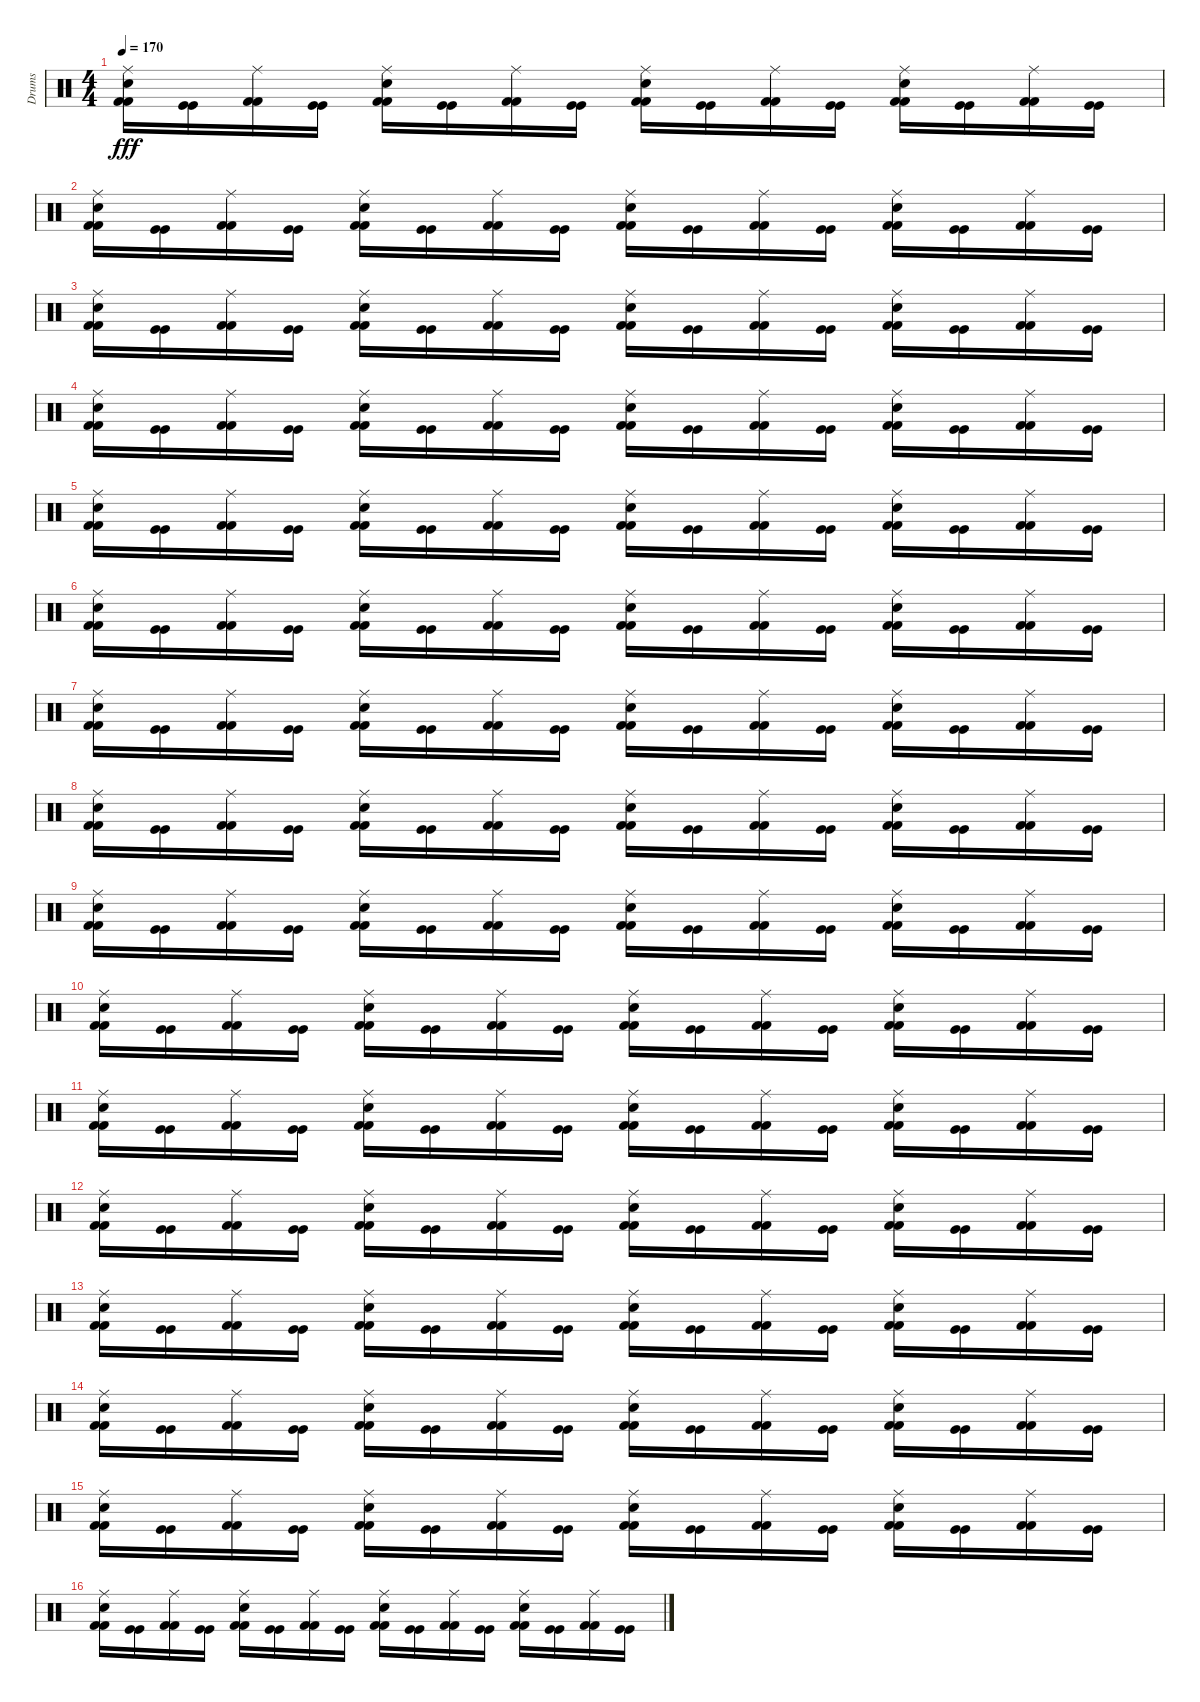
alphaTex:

\track ("Drums" "Drums") {instrument percussion}
\staff {score}
\articulation defaults
\ts (4 4)
\tempo 170
\clef neutral
\ks c
("Kick (hit) 2" "Kick (hit) 2" "Electric Snare (hit)" "Ride (middle)").16{dy fff} ("Kick (hit)" "Kick (hit)").16 ("Kick (hit) 2" "Kick (hit) 2" "Ride (middle)").16 ("Kick (hit)" "Kick (hit)").16 ("Kick (hit) 2" "Kick (hit) 2" "Electric Snare (hit)" "Ride (middle)").16 ("Kick (hit)" "Kick (hit)").16 ("Kick (hit) 2" "Kick (hit) 2" "Ride (middle)").16 ("Kick (hit)" "Kick (hit)").16 ("Kick (hit) 2" "Kick (hit) 2" "Electric Snare (hit)" "Ride (middle)").16 ("Kick (hit)" "Kick (hit)").16 ("Kick (hit) 2" "Kick (hit) 2" "Ride (middle)").16 ("Kick (hit)" "Kick (hit)").16 ("Kick (hit) 2" "Kick (hit) 2" "Electric Snare (hit)" "Ride (middle)").16 ("Kick (hit)" "Kick (hit)").16 ("Kick (hit) 2" "Kick (hit) 2" "Ride (middle)").16 ("Kick (hit)" "Kick (hit)").16 |
("Kick (hit) 2" "Kick (hit) 2" "Electric Snare (hit)" "Ride (middle)").16 ("Kick (hit)" "Kick (hit)").16 ("Kick (hit) 2" "Kick (hit) 2" "Ride (middle)").16 ("Kick (hit)" "Kick (hit)").16 ("Kick (hit) 2" "Kick (hit) 2" "Electric Snare (hit)" "Ride (middle)").16 ("Kick (hit)" "Kick (hit)").16 ("Kick (hit) 2" "Kick (hit) 2" "Ride (middle)").16 ("Kick (hit)" "Kick (hit)").16 ("Kick (hit) 2" "Kick (hit) 2" "Electric Snare (hit)" "Ride (middle)").16 ("Kick (hit)" "Kick (hit)").16 ("Kick (hit) 2" "Kick (hit) 2" "Ride (middle)").16 ("Kick (hit)" "Kick (hit)").16 ("Kick (hit) 2" "Kick (hit) 2" "Electric Snare (hit)" "Ride (middle)").16 ("Kick (hit)" "Kick (hit)").16 ("Kick (hit) 2" "Kick (hit) 2" "Ride (middle)").16 ("Kick (hit)" "Kick (hit)").16 |
("Kick (hit) 2" "Kick (hit) 2" "Electric Snare (hit)" "Ride (middle)").16 ("Kick (hit)" "Kick (hit)").16 ("Kick (hit) 2" "Kick (hit) 2" "Ride (middle)").16 ("Kick (hit)" "Kick (hit)").16 ("Kick (hit) 2" "Kick (hit) 2" "Electric Snare (hit)" "Ride (middle)").16 ("Kick (hit)" "Kick (hit)").16 ("Kick (hit) 2" "Kick (hit) 2" "Ride (middle)").16 ("Kick (hit)" "Kick (hit)").16 ("Kick (hit) 2" "Kick (hit) 2" "Electric Snare (hit)" "Ride (middle)").16 ("Kick (hit)" "Kick (hit)").16 ("Kick (hit) 2" "Kick (hit) 2" "Ride (middle)").16 ("Kick (hit)" "Kick (hit)").16 ("Kick (hit) 2" "Kick (hit) 2" "Electric Snare (hit)" "Ride (middle)").16 ("Kick (hit)" "Kick (hit)").16 ("Kick (hit) 2" "Kick (hit) 2" "Ride (middle)").16 ("Kick (hit)" "Kick (hit)").16 |
("Kick (hit) 2" "Kick (hit) 2" "Electric Snare (hit)" "Ride (middle)").16 ("Kick (hit)" "Kick (hit)").16 ("Kick (hit) 2" "Kick (hit) 2" "Ride (middle)").16 ("Kick (hit)" "Kick (hit)").16 ("Kick (hit) 2" "Kick (hit) 2" "Electric Snare (hit)" "Ride (middle)").16 ("Kick (hit)" "Kick (hit)").16 ("Kick (hit) 2" "Kick (hit) 2" "Ride (middle)").16 ("Kick (hit)" "Kick (hit)").16 ("Kick (hit) 2" "Kick (hit) 2" "Electric Snare (hit)" "Ride (middle)").16 ("Kick (hit)" "Kick (hit)").16 ("Kick (hit) 2" "Kick (hit) 2" "Ride (middle)").16 ("Kick (hit)" "Kick (hit)").16 ("Kick (hit) 2" "Kick (hit) 2" "Electric Snare (hit)" "Ride (middle)").16 ("Kick (hit)" "Kick (hit)").16 ("Kick (hit) 2" "Kick (hit) 2" "Ride (middle)").16 ("Kick (hit)" "Kick (hit)").16 |
("Kick (hit) 2" "Kick (hit) 2" "Electric Snare (hit)" "Ride (middle)").16 ("Kick (hit)" "Kick (hit)").16 ("Kick (hit) 2" "Kick (hit) 2" "Ride (middle)").16 ("Kick (hit)" "Kick (hit)").16 ("Kick (hit) 2" "Kick (hit) 2" "Electric Snare (hit)" "Ride (middle)").16 ("Kick (hit)" "Kick (hit)").16 ("Kick (hit) 2" "Kick (hit) 2" "Ride (middle)").16 ("Kick (hit)" "Kick (hit)").16 ("Kick (hit) 2" "Kick (hit) 2" "Electric Snare (hit)" "Ride (middle)").16 ("Kick (hit)" "Kick (hit)").16 ("Kick (hit) 2" "Kick (hit) 2" "Ride (middle)").16 ("Kick (hit)" "Kick (hit)").16 ("Kick (hit) 2" "Kick (hit) 2" "Electric Snare (hit)" "Ride (middle)").16 ("Kick (hit)" "Kick (hit)").16 ("Kick (hit) 2" "Kick (hit) 2" "Ride (middle)").16 ("Kick (hit)" "Kick (hit)").16 |
("Kick (hit) 2" "Kick (hit) 2" "Electric Snare (hit)" "Ride (middle)").16 ("Kick (hit)" "Kick (hit)").16 ("Kick (hit) 2" "Kick (hit) 2" "Ride (middle)").16 ("Kick (hit)" "Kick (hit)").16 ("Kick (hit) 2" "Kick (hit) 2" "Electric Snare (hit)" "Ride (middle)").16 ("Kick (hit)" "Kick (hit)").16 ("Kick (hit) 2" "Kick (hit) 2" "Ride (middle)").16 ("Kick (hit)" "Kick (hit)").16 ("Kick (hit) 2" "Kick (hit) 2" "Electric Snare (hit)" "Ride (middle)").16 ("Kick (hit)" "Kick (hit)").16 ("Kick (hit) 2" "Kick (hit) 2" "Ride (middle)").16 ("Kick (hit)" "Kick (hit)").16 ("Kick (hit) 2" "Kick (hit) 2" "Electric Snare (hit)" "Ride (middle)").16 ("Kick (hit)" "Kick (hit)").16 ("Kick (hit) 2" "Kick (hit) 2" "Ride (middle)").16 ("Kick (hit)" "Kick (hit)").16 |
("Kick (hit) 2" "Kick (hit) 2" "Electric Snare (hit)" "Ride (middle)").16 ("Kick (hit)" "Kick (hit)").16 ("Kick (hit) 2" "Kick (hit) 2" "Ride (middle)").16 ("Kick (hit)" "Kick (hit)").16 ("Kick (hit) 2" "Kick (hit) 2" "Electric Snare (hit)" "Ride (middle)").16 ("Kick (hit)" "Kick (hit)").16 ("Kick (hit) 2" "Kick (hit) 2" "Ride (middle)").16 ("Kick (hit)" "Kick (hit)").16 ("Kick (hit) 2" "Kick (hit) 2" "Electric Snare (hit)" "Ride (middle)").16 ("Kick (hit)" "Kick (hit)").16 ("Kick (hit) 2" "Kick (hit) 2" "Ride (middle)").16 ("Kick (hit)" "Kick (hit)").16 ("Kick (hit) 2" "Kick (hit) 2" "Electric Snare (hit)" "Ride (middle)").16 ("Kick (hit)" "Kick (hit)").16 ("Kick (hit) 2" "Kick (hit) 2" "Ride (middle)").16 ("Kick (hit)" "Kick (hit)").16 |
("Kick (hit) 2" "Kick (hit) 2" "Electric Snare (hit)" "Ride (middle)").16 ("Kick (hit)" "Kick (hit)").16 ("Kick (hit) 2" "Kick (hit) 2" "Ride (middle)").16 ("Kick (hit)" "Kick (hit)").16 ("Kick (hit) 2" "Kick (hit) 2" "Electric Snare (hit)" "Ride (middle)").16 ("Kick (hit)" "Kick (hit)").16 ("Kick (hit) 2" "Kick (hit) 2" "Ride (middle)").16 ("Kick (hit)" "Kick (hit)").16 ("Kick (hit) 2" "Kick (hit) 2" "Electric Snare (hit)" "Ride (middle)").16 ("Kick (hit)" "Kick (hit)").16 ("Kick (hit) 2" "Kick (hit) 2" "Ride (middle)").16 ("Kick (hit)" "Kick (hit)").16 ("Kick (hit) 2" "Kick (hit) 2" "Electric Snare (hit)" "Ride (middle)").16 ("Kick (hit)" "Kick (hit)").16 ("Kick (hit) 2" "Kick (hit) 2" "Ride (middle)").16 ("Kick (hit)" "Kick (hit)").16 |
("Kick (hit) 2" "Kick (hit) 2" "Electric Snare (hit)" "Ride (middle)").16 ("Kick (hit)" "Kick (hit)").16 ("Kick (hit) 2" "Kick (hit) 2" "Ride (middle)").16 ("Kick (hit)" "Kick (hit)").16 ("Kick (hit) 2" "Kick (hit) 2" "Electric Snare (hit)" "Ride (middle)").16 ("Kick (hit)" "Kick (hit)").16 ("Kick (hit) 2" "Kick (hit) 2" "Ride (middle)").16 ("Kick (hit)" "Kick (hit)").16 ("Kick (hit) 2" "Kick (hit) 2" "Electric Snare (hit)" "Ride (middle)").16 ("Kick (hit)" "Kick (hit)").16 ("Kick (hit) 2" "Kick (hit) 2" "Ride (middle)").16 ("Kick (hit)" "Kick (hit)").16 ("Kick (hit) 2" "Kick (hit) 2" "Electric Snare (hit)" "Ride (middle)").16 ("Kick (hit)" "Kick (hit)").16 ("Kick (hit) 2" "Kick (hit) 2" "Ride (middle)").16 ("Kick (hit)" "Kick (hit)").16 |
("Kick (hit) 2" "Kick (hit) 2" "Electric Snare (hit)" "Ride (middle)").16 ("Kick (hit)" "Kick (hit)").16 ("Kick (hit) 2" "Kick (hit) 2" "Ride (middle)").16 ("Kick (hit)" "Kick (hit)").16 ("Kick (hit) 2" "Kick (hit) 2" "Electric Snare (hit)" "Ride (middle)").16 ("Kick (hit)" "Kick (hit)").16 ("Kick (hit) 2" "Kick (hit) 2" "Ride (middle)").16 ("Kick (hit)" "Kick (hit)").16 ("Kick (hit) 2" "Kick (hit) 2" "Electric Snare (hit)" "Ride (middle)").16 ("Kick (hit)" "Kick (hit)").16 ("Kick (hit) 2" "Kick (hit) 2" "Ride (middle)").16 ("Kick (hit)" "Kick (hit)").16 ("Kick (hit) 2" "Kick (hit) 2" "Electric Snare (hit)" "Ride (middle)").16 ("Kick (hit)" "Kick (hit)").16 ("Kick (hit) 2" "Kick (hit) 2" "Ride (middle)").16 ("Kick (hit)" "Kick (hit)").16 |
("Kick (hit) 2" "Kick (hit) 2" "Electric Snare (hit)" "Ride (middle)").16 ("Kick (hit)" "Kick (hit)").16 ("Kick (hit) 2" "Kick (hit) 2" "Ride (middle)").16 ("Kick (hit)" "Kick (hit)").16 ("Kick (hit) 2" "Kick (hit) 2" "Electric Snare (hit)" "Ride (middle)").16 ("Kick (hit)" "Kick (hit)").16 ("Kick (hit) 2" "Kick (hit) 2" "Ride (middle)").16 ("Kick (hit)" "Kick (hit)").16 ("Kick (hit) 2" "Kick (hit) 2" "Electric Snare (hit)" "Ride (middle)").16 ("Kick (hit)" "Kick (hit)").16 ("Kick (hit) 2" "Kick (hit) 2" "Ride (middle)").16 ("Kick (hit)" "Kick (hit)").16 ("Kick (hit) 2" "Kick (hit) 2" "Electric Snare (hit)" "Ride (middle)").16 ("Kick (hit)" "Kick (hit)").16 ("Kick (hit) 2" "Kick (hit) 2" "Ride (middle)").16 ("Kick (hit)" "Kick (hit)").16 |
("Kick (hit) 2" "Kick (hit) 2" "Electric Snare (hit)" "Ride (middle)").16 ("Kick (hit)" "Kick (hit)").16 ("Kick (hit) 2" "Kick (hit) 2" "Ride (middle)").16 ("Kick (hit)" "Kick (hit)").16 ("Kick (hit) 2" "Kick (hit) 2" "Electric Snare (hit)" "Ride (middle)").16 ("Kick (hit)" "Kick (hit)").16 ("Kick (hit) 2" "Kick (hit) 2" "Ride (middle)").16 ("Kick (hit)" "Kick (hit)").16 ("Kick (hit) 2" "Kick (hit) 2" "Electric Snare (hit)" "Ride (middle)").16 ("Kick (hit)" "Kick (hit)").16 ("Kick (hit) 2" "Kick (hit) 2" "Ride (middle)").16 ("Kick (hit)" "Kick (hit)").16 ("Kick (hit) 2" "Kick (hit) 2" "Electric Snare (hit)" "Ride (middle)").16 ("Kick (hit)" "Kick (hit)").16 ("Kick (hit) 2" "Kick (hit) 2" "Ride (middle)").16 ("Kick (hit)" "Kick (hit)").16 |
("Kick (hit) 2" "Kick (hit) 2" "Electric Snare (hit)" "Ride (middle)").16 ("Kick (hit)" "Kick (hit)").16 ("Kick (hit) 2" "Kick (hit) 2" "Ride (middle)").16 ("Kick (hit)" "Kick (hit)").16 ("Kick (hit) 2" "Kick (hit) 2" "Electric Snare (hit)" "Ride (middle)").16 ("Kick (hit)" "Kick (hit)").16 ("Kick (hit) 2" "Kick (hit) 2" "Ride (middle)").16 ("Kick (hit)" "Kick (hit)").16 ("Kick (hit) 2" "Kick (hit) 2" "Electric Snare (hit)" "Ride (middle)").16 ("Kick (hit)" "Kick (hit)").16 ("Kick (hit) 2" "Kick (hit) 2" "Ride (middle)").16 ("Kick (hit)" "Kick (hit)").16 ("Kick (hit) 2" "Kick (hit) 2" "Electric Snare (hit)" "Ride (middle)").16 ("Kick (hit)" "Kick (hit)").16 ("Kick (hit) 2" "Kick (hit) 2" "Ride (middle)").16 ("Kick (hit)" "Kick (hit)").16 |
("Kick (hit) 2" "Kick (hit) 2" "Electric Snare (hit)" "Ride (middle)").16 ("Kick (hit)" "Kick (hit)").16 ("Kick (hit) 2" "Kick (hit) 2" "Ride (middle)").16 ("Kick (hit)" "Kick (hit)").16 ("Kick (hit) 2" "Kick (hit) 2" "Electric Snare (hit)" "Ride (middle)").16 ("Kick (hit)" "Kick (hit)").16 ("Kick (hit) 2" "Kick (hit) 2" "Ride (middle)").16 ("Kick (hit)" "Kick (hit)").16 ("Kick (hit) 2" "Kick (hit) 2" "Electric Snare (hit)" "Ride (middle)").16 ("Kick (hit)" "Kick (hit)").16 ("Kick (hit) 2" "Kick (hit) 2" "Ride (middle)").16 ("Kick (hit)" "Kick (hit)").16 ("Kick (hit) 2" "Kick (hit) 2" "Electric Snare (hit)" "Ride (middle)").16 ("Kick (hit)" "Kick (hit)").16 ("Kick (hit) 2" "Kick (hit) 2" "Ride (middle)").16 ("Kick (hit)" "Kick (hit)").16 |
("Kick (hit) 2" "Kick (hit) 2" "Electric Snare (hit)" "Ride (middle)").16 ("Kick (hit)" "Kick (hit)").16 ("Kick (hit) 2" "Kick (hit) 2" "Ride (middle)").16 ("Kick (hit)" "Kick (hit)").16 ("Kick (hit) 2" "Kick (hit) 2" "Electric Snare (hit)" "Ride (middle)").16 ("Kick (hit)" "Kick (hit)").16 ("Kick (hit) 2" "Kick (hit) 2" "Ride (middle)").16 ("Kick (hit)" "Kick (hit)").16 ("Kick (hit) 2" "Kick (hit) 2" "Electric Snare (hit)" "Ride (middle)").16 ("Kick (hit)" "Kick (hit)").16 ("Kick (hit) 2" "Kick (hit) 2" "Ride (middle)").16 ("Kick (hit)" "Kick (hit)").16 ("Kick (hit) 2" "Kick (hit) 2" "Electric Snare (hit)" "Ride (middle)").16 ("Kick (hit)" "Kick (hit)").16 ("Kick (hit) 2" "Kick (hit) 2" "Ride (middle)").16 ("Kick (hit)" "Kick (hit)").16 |
("Kick (hit) 2" "Kick (hit) 2" "Electric Snare (hit)" "Ride (middle)").16 ("Kick (hit)" "Kick (hit)").16 ("Kick (hit) 2" "Kick (hit) 2" "Ride (middle)").16 ("Kick (hit)" "Kick (hit)").16 ("Kick (hit) 2" "Kick (hit) 2" "Electric Snare (hit)" "Ride (middle)").16 ("Kick (hit)" "Kick (hit)").16 ("Kick (hit) 2" "Kick (hit) 2" "Ride (middle)").16 ("Kick (hit)" "Kick (hit)").16 ("Kick (hit) 2" "Kick (hit) 2" "Electric Snare (hit)" "Ride (middle)").16 ("Kick (hit)" "Kick (hit)").16 ("Kick (hit) 2" "Kick (hit) 2" "Ride (middle)").16 ("Kick (hit)" "Kick (hit)").16 ("Kick (hit) 2" "Kick (hit) 2" "Electric Snare (hit)" "Ride (middle)").16 ("Kick (hit)" "Kick (hit)").16 ("Kick (hit) 2" "Kick (hit) 2" "Ride (middle)").16 ("Kick (hit)" "Kick (hit)").16
